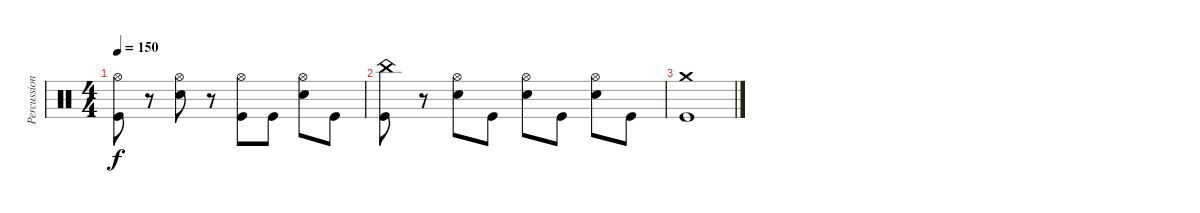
\track ("Percussion" "Percussion") {instrument percussion}
\staff {score}
\articulation defaults
\ts (4 4)
\tempo 150
\clef neutral
\ks c
("Hi-Hat (open)" "Kick (hit)").8{dy f} r.8 ("Hi-Hat (open)" "Electric Snare (hit)").8 r.8 ("Hi-Hat (open)" "Kick (hit)").8 "Kick (hit)".8 ("Hi-Hat (open)" "Electric Snare (hit)").8 "Kick (hit)".8 |
("China (hit)" "Kick (hit)").8 r.8 ("Hi-Hat (open)" "Electric Snare (hit)").8 "Kick (hit)".8 ("Hi-Hat (open)" "Electric Snare (hit)").8 "Kick (hit)".8 ("Hi-Hat (open)" "Electric Snare (hit)").8 "Kick (hit)".8 |
("Crash medium (hit)" "Kick (hit)").1
